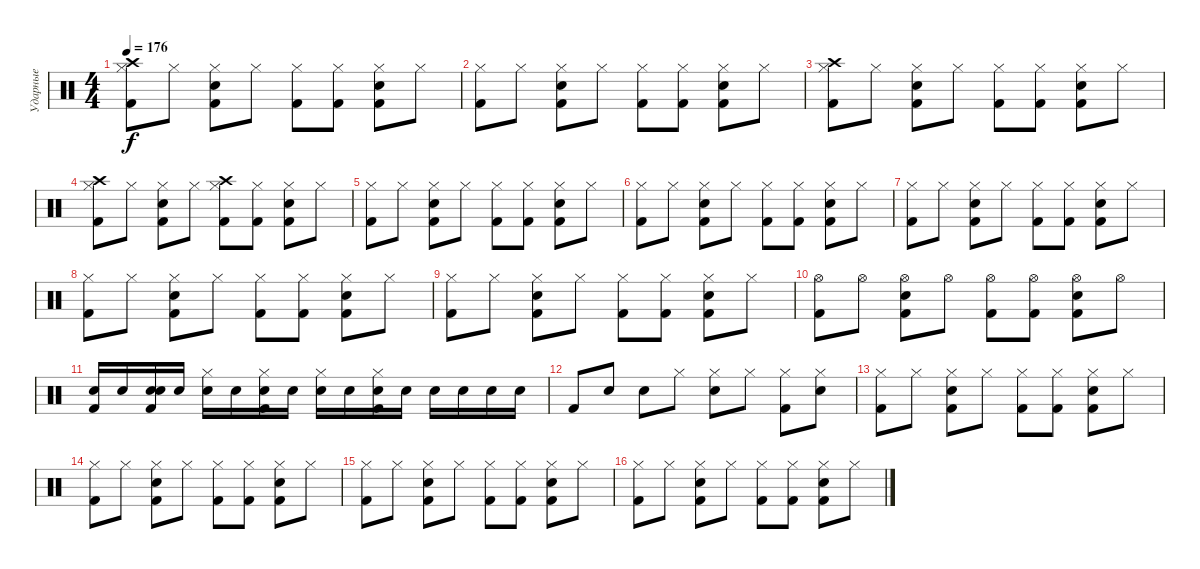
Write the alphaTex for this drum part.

\track ("Ударные" "Ударные") {instrument percussion}
\staff {score}
\articulation defaults
\ts (4 4)
\tempo 176
\clef neutral
\ks c
("Hi-Hat (closed)" "Kick (hit) 2" "Crash high (hit)").8{dy f} "Hi-Hat (closed)".8 ("Hi-Hat (closed)" "Kick (hit) 2" "Snare (hit) 2").8 "Hi-Hat (closed)".8 ("Hi-Hat (closed)" "Kick (hit) 2").8 ("Hi-Hat (closed)" "Kick (hit) 2").8 ("Hi-Hat (closed)" "Kick (hit) 2" "Snare (hit) 2").8 "Hi-Hat (closed)".8 |
("Hi-Hat (closed)" "Kick (hit) 2").8 "Hi-Hat (closed)".8 ("Hi-Hat (closed)" "Kick (hit) 2" "Snare (hit) 2").8 "Hi-Hat (closed)".8 ("Hi-Hat (closed)" "Kick (hit) 2").8 ("Hi-Hat (closed)" "Kick (hit) 2").8 ("Hi-Hat (closed)" "Kick (hit) 2" "Snare (hit) 2").8 "Hi-Hat (closed)".8 |
("Hi-Hat (closed)" "Kick (hit) 2" "Crash high (hit)").8 "Hi-Hat (closed)".8 ("Hi-Hat (closed)" "Kick (hit) 2" "Snare (hit) 2").8 "Hi-Hat (closed)".8 ("Hi-Hat (closed)" "Kick (hit) 2").8 ("Hi-Hat (closed)" "Kick (hit) 2").8 ("Hi-Hat (closed)" "Kick (hit) 2" "Snare (hit) 2").8 "Hi-Hat (closed)".8 |
("Hi-Hat (closed)" "Kick (hit) 2" "Crash high (hit)").8 "Hi-Hat (closed)".8 ("Hi-Hat (closed)" "Kick (hit) 2" "Snare (hit) 2").8 "Hi-Hat (closed)".8 ("Hi-Hat (closed)" "Kick (hit) 2" "Crash high (hit)").8 ("Hi-Hat (closed)" "Kick (hit) 2").8 ("Hi-Hat (closed)" "Kick (hit) 2" "Snare (hit) 2").8 "Hi-Hat (closed)".8 |
("Hi-Hat (closed)" "Kick (hit) 2").8 "Hi-Hat (closed)".8 ("Hi-Hat (closed)" "Kick (hit) 2" "Snare (hit) 2").8 "Hi-Hat (closed)".8 ("Hi-Hat (closed)" "Kick (hit) 2").8 ("Hi-Hat (closed)" "Kick (hit) 2").8 ("Hi-Hat (closed)" "Kick (hit) 2" "Snare (hit) 2").8 "Hi-Hat (closed)".8 |
("Hi-Hat (closed)" "Kick (hit) 2").8 "Hi-Hat (closed)".8 ("Hi-Hat (closed)" "Kick (hit) 2" "Snare (hit) 2").8 "Hi-Hat (closed)".8 ("Hi-Hat (closed)" "Kick (hit) 2").8 ("Hi-Hat (closed)" "Kick (hit) 2").8 ("Hi-Hat (closed)" "Kick (hit) 2" "Snare (hit) 2").8 "Hi-Hat (closed)".8 |
("Hi-Hat (closed)" "Kick (hit) 2").8 "Hi-Hat (closed)".8 ("Hi-Hat (closed)" "Kick (hit) 2" "Snare (hit) 2").8 "Hi-Hat (closed)".8 ("Hi-Hat (closed)" "Kick (hit) 2").8 ("Hi-Hat (closed)" "Kick (hit) 2").8 ("Hi-Hat (closed)" "Kick (hit) 2" "Snare (hit) 2").8 "Hi-Hat (closed)".8 |
("Hi-Hat (closed)" "Kick (hit) 2").8 "Hi-Hat (closed)".8 ("Hi-Hat (closed)" "Kick (hit) 2" "Snare (hit) 2").8 "Hi-Hat (closed)".8 ("Hi-Hat (closed)" "Kick (hit) 2").8 ("Hi-Hat (closed)" "Kick (hit) 2").8 ("Hi-Hat (closed)" "Kick (hit) 2" "Snare (hit) 2").8 "Hi-Hat (closed)".8 |
("Hi-Hat (closed)" "Kick (hit) 2").8 "Hi-Hat (closed)".8 ("Hi-Hat (closed)" "Kick (hit) 2" "Snare (hit) 2").8 "Hi-Hat (closed)".8 ("Hi-Hat (closed)" "Kick (hit) 2").8 ("Hi-Hat (closed)" "Kick (hit) 2").8 ("Hi-Hat (closed)" "Kick (hit) 2" "Snare (hit) 2").8 "Hi-Hat (closed)".8 |
("Hi-Hat (open)" "Kick (hit) 2").8 "Hi-Hat (open)".8 ("Hi-Hat (open)" "Kick (hit) 2" "Snare (hit) 2").8 "Hi-Hat (open)".8 ("Hi-Hat (open)" "Kick (hit) 2").8 ("Hi-Hat (open)" "Kick (hit) 2").8 ("Hi-Hat (open)" "Kick (hit) 2" "Snare (hit) 2").8 "Hi-Hat (open)".8 |
("Snare (hit) 2" "Kick (hit) 2").16 "Snare (hit) 2".16 ("Snare (hit) 2" "Kick (hit) 2" "Snare (hit) 2").16 "Snare (hit) 2".16 ("Snare (hit) 2" "Hi-Hat (closed)").16 "Snare (hit) 2".16 ("Snare (hit) 2" "Hi-Hat (closed)" "Kick (hit) 2").16 "Snare (hit) 2".16 ("Snare (hit) 2" "Hi-Hat (closed)").16 "Snare (hit) 2".16 ("Snare (hit) 2" "Hi-Hat (closed)" "Kick (hit) 2").16 "Snare (hit) 2".16 "Snare (hit) 2".16 "Snare (hit) 2".16 "Snare (hit) 2".16 "Snare (hit) 2".16 |
"Kick (hit) 2".8 "Snare (hit) 2".8 "Snare (hit) 2".8 "Hi-Hat (closed)".8 ("Hi-Hat (closed)" "Snare (hit) 2").8 "Hi-Hat (closed)".8 ("Hi-Hat (closed)" "Kick (hit) 2").8 ("Hi-Hat (closed)" "Snare (hit) 2").8 |
("Hi-Hat (closed)" "Kick (hit) 2").8 "Hi-Hat (closed)".8 ("Hi-Hat (closed)" "Kick (hit) 2" "Snare (hit) 2").8 "Hi-Hat (closed)".8 ("Hi-Hat (closed)" "Kick (hit) 2").8 ("Hi-Hat (closed)" "Kick (hit) 2").8 ("Hi-Hat (closed)" "Kick (hit) 2" "Snare (hit) 2").8 "Hi-Hat (closed)".8 |
("Hi-Hat (closed)" "Kick (hit) 2").8 "Hi-Hat (closed)".8 ("Hi-Hat (closed)" "Kick (hit) 2" "Snare (hit) 2").8 "Hi-Hat (closed)".8 ("Hi-Hat (closed)" "Kick (hit) 2").8 ("Hi-Hat (closed)" "Kick (hit) 2").8 ("Hi-Hat (closed)" "Kick (hit) 2" "Snare (hit) 2").8 "Hi-Hat (closed)".8 |
("Hi-Hat (closed)" "Kick (hit) 2").8 "Hi-Hat (closed)".8 ("Hi-Hat (closed)" "Kick (hit) 2" "Snare (hit) 2").8 "Hi-Hat (closed)".8 ("Hi-Hat (closed)" "Kick (hit) 2").8 ("Hi-Hat (closed)" "Kick (hit) 2").8 ("Hi-Hat (closed)" "Kick (hit) 2" "Snare (hit) 2").8 "Hi-Hat (closed)".8 |
("Hi-Hat (closed)" "Kick (hit) 2").8 "Hi-Hat (closed)".8 ("Hi-Hat (closed)" "Kick (hit) 2" "Snare (hit) 2").8 "Hi-Hat (closed)".8 ("Hi-Hat (closed)" "Kick (hit) 2").8 ("Hi-Hat (closed)" "Kick (hit) 2").8 ("Hi-Hat (closed)" "Kick (hit) 2" "Snare (hit) 2").8 "Hi-Hat (closed)".8
